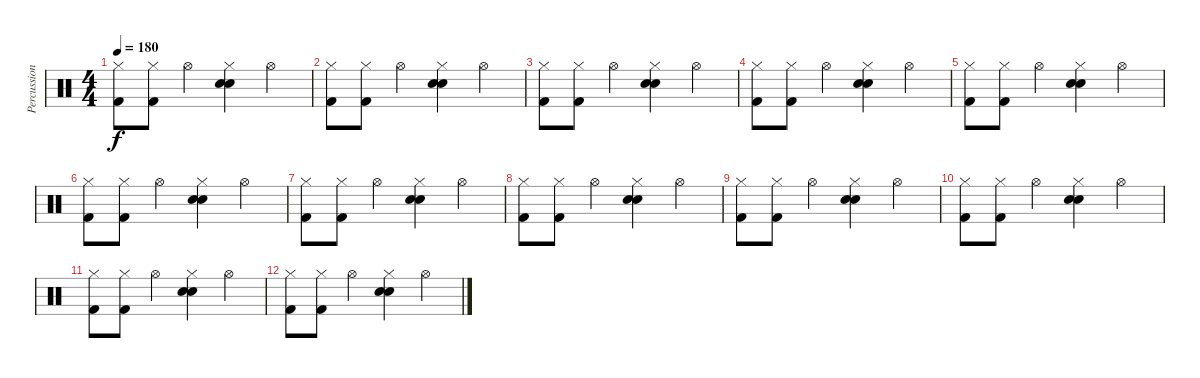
\track ("Percussions" "Percussion") {instrument percussion}
\staff {score}
\articulation defaults
\ts (4 4)
\tempo 180
\clef neutral
\ks c
("Hi-Hat (closed)" "Kick (hit) 2").8{dy f} ("Hi-Hat (closed)" "Kick (hit) 2").8 "Hi-Hat (open)".4 ("Electric Snare (hit)" "Hi-Hat (closed)" "Snare (hit) 2").4 "Hi-Hat (open)".4 |
("Hi-Hat (closed)" "Kick (hit) 2").8 ("Hi-Hat (closed)" "Kick (hit) 2").8 "Hi-Hat (open)".4 ("Electric Snare (hit)" "Hi-Hat (closed)" "Snare (hit) 2").4 "Hi-Hat (open)".4 |
("Hi-Hat (closed)" "Kick (hit) 2").8 ("Hi-Hat (closed)" "Kick (hit) 2").8 "Hi-Hat (open)".4 ("Electric Snare (hit)" "Hi-Hat (closed)" "Snare (hit) 2").4 "Hi-Hat (open)".4 |
("Hi-Hat (closed)" "Kick (hit) 2").8 ("Hi-Hat (closed)" "Kick (hit) 2").8 "Hi-Hat (open)".4 ("Electric Snare (hit)" "Hi-Hat (closed)" "Snare (hit) 2").4 "Hi-Hat (open)".4 |
("Hi-Hat (closed)" "Kick (hit) 2").8 ("Hi-Hat (closed)" "Kick (hit) 2").8 "Hi-Hat (open)".4 ("Electric Snare (hit)" "Hi-Hat (closed)" "Snare (hit) 2").4 "Hi-Hat (open)".4 |
("Hi-Hat (closed)" "Kick (hit) 2").8 ("Hi-Hat (closed)" "Kick (hit) 2").8 "Hi-Hat (open)".4 ("Electric Snare (hit)" "Hi-Hat (closed)" "Snare (hit) 2").4 "Hi-Hat (open)".4 |
("Hi-Hat (closed)" "Kick (hit) 2").8 ("Hi-Hat (closed)" "Kick (hit) 2").8 "Hi-Hat (open)".4 ("Electric Snare (hit)" "Hi-Hat (closed)" "Snare (hit) 2").4 "Hi-Hat (open)".4 |
("Hi-Hat (closed)" "Kick (hit) 2").8 ("Hi-Hat (closed)" "Kick (hit) 2").8 "Hi-Hat (open)".4 ("Electric Snare (hit)" "Hi-Hat (closed)" "Snare (hit) 2").4 "Hi-Hat (open)".4 |
("Hi-Hat (closed)" "Kick (hit) 2").8 ("Hi-Hat (closed)" "Kick (hit) 2").8 "Hi-Hat (open)".4 ("Electric Snare (hit)" "Hi-Hat (closed)" "Snare (hit) 2").4 "Hi-Hat (open)".4 |
("Hi-Hat (closed)" "Kick (hit) 2").8 ("Hi-Hat (closed)" "Kick (hit) 2").8 "Hi-Hat (open)".4 ("Electric Snare (hit)" "Hi-Hat (closed)" "Snare (hit) 2").4 "Hi-Hat (open)".4 |
("Hi-Hat (closed)" "Kick (hit) 2").8 ("Hi-Hat (closed)" "Kick (hit) 2").8 "Hi-Hat (open)".4 ("Electric Snare (hit)" "Hi-Hat (closed)" "Snare (hit) 2").4 "Hi-Hat (open)".4 |
("Hi-Hat (closed)" "Kick (hit) 2").8 ("Hi-Hat (closed)" "Kick (hit) 2").8 "Hi-Hat (open)".4 ("Electric Snare (hit)" "Hi-Hat (closed)" "Snare (hit) 2").4 "Hi-Hat (open)".4
